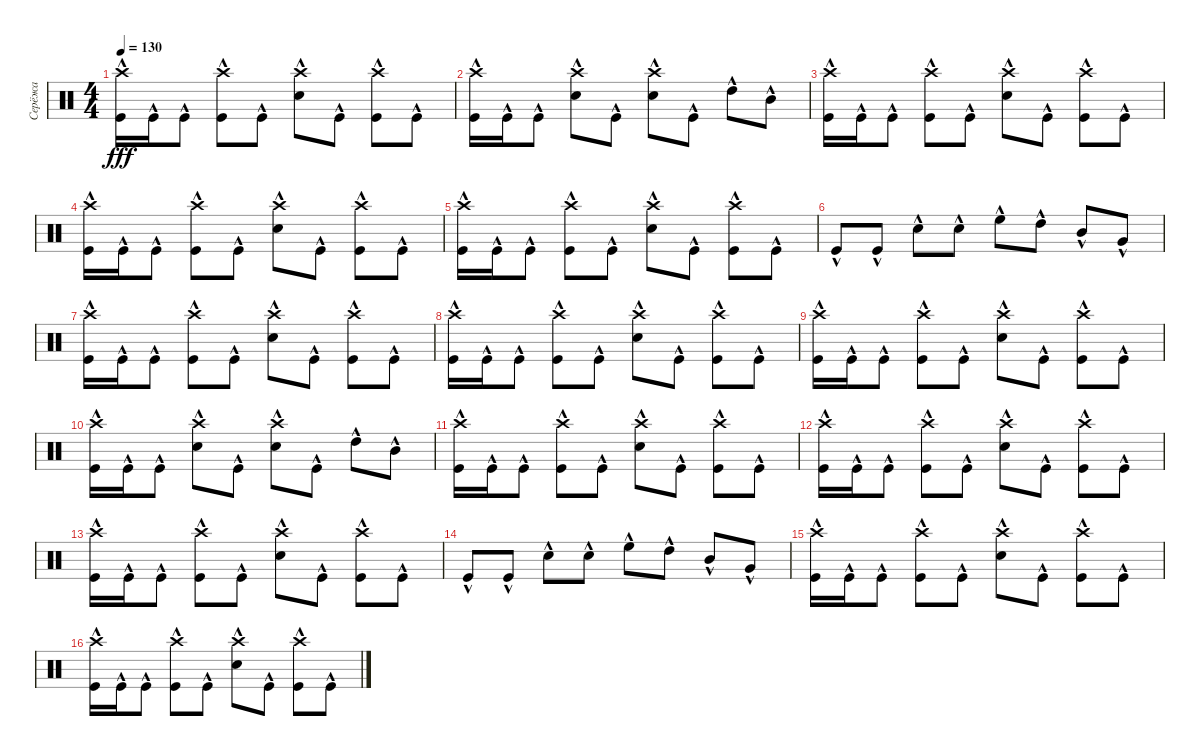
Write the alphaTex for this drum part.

\track ("Серёжа" "Серёжа") {instrument percussion}
\staff {score}
\articulation defaults
\ts (4 4)
\tempo 130
\clef neutral
\ks c
("Crash high (hit)" "Kick (hit)"{hac}).16{dy fff} "Kick (hit)"{hac}.16 "Kick (hit)"{hac}.8 ("Crash high (hit)" "Kick (hit)"{hac}).8 "Kick (hit)"{hac}.8 ("Crash high (hit)" "Snare (hit) 2"{hac}).8 "Kick (hit)"{hac}.8 ("Crash high (hit)" "Kick (hit)"{hac}).8 "Kick (hit)"{hac}.8 |
("Crash high (hit)" "Kick (hit)"{hac}).16 "Kick (hit)"{hac}.16 "Kick (hit)"{hac}.8 ("Crash high (hit)" "Snare (hit) 2"{hac}).8 "Kick (hit)"{hac}.8 ("Crash high (hit)" "Snare (hit) 2"{hac}).8 "Kick (hit)"{hac}.8 "High Tom (hit)"{hac}.8 "Mid Tom (hit)"{hac}.8 |
("Crash high (hit)"{hac} "Kick (hit)"{hac}).16 "Kick (hit)"{hac}.16 "Kick (hit)"{hac}.8 ("Crash high (hit)" "Kick (hit)"{hac}).8 "Kick (hit)"{hac}.8 ("Crash high (hit)" "Snare (hit) 2"{hac}).8 "Kick (hit)"{hac}.8 ("Crash high (hit)" "Kick (hit)"{hac}).8 "Kick (hit)"{hac}.8 |
("Crash high (hit)" "Kick (hit)"{hac}).16 "Kick (hit)"{hac}.16 "Kick (hit)"{hac}.8 ("Crash high (hit)" "Kick (hit)"{hac}).8 "Kick (hit)"{hac}.8 ("Crash high (hit)" "Snare (hit) 2"{hac}).8 "Kick (hit)"{hac}.8 ("Crash high (hit)" "Kick (hit)"{hac}).8 "Kick (hit)"{hac}.8 |
("Crash high (hit)" "Kick (hit)"{hac}).16 "Kick (hit)"{hac}.16 "Kick (hit)"{hac}.8 ("Crash high (hit)" "Kick (hit)"{hac}).8 "Kick (hit)"{hac}.8 ("Crash high (hit)" "Snare (hit) 2"{hac}).8 "Kick (hit)"{hac}.8 ("Crash high (hit)" "Kick (hit)"{hac}).8 "Kick (hit)"{hac}.8 |
"Kick (hit)"{hac}.8 "Kick (hit)"{hac}.8 "Snare (hit) 2"{hac}.8 "Snare (hit) 2"{hac}.8 "High Floor Tom (hit)"{hac}.8 "High Tom (hit)"{hac}.8 "Mid Tom (hit)"{hac}.8 "Very Low Tom (hit)"{hac}.8 |
("Crash high (hit)"{hac} "Kick (hit)"{hac}).16 "Kick (hit)"{hac}.16 "Kick (hit)"{hac}.8 ("Crash high (hit)" "Kick (hit)"{hac}).8 "Kick (hit)"{hac}.8 ("Crash high (hit)" "Snare (hit) 2"{hac}).8 "Kick (hit)"{hac}.8 ("Crash high (hit)" "Kick (hit)"{hac}).8 "Kick (hit)"{hac}.8 |
("Crash high (hit)" "Kick (hit)"{hac}).16 "Kick (hit)"{hac}.16 "Kick (hit)"{hac}.8 ("Crash high (hit)" "Kick (hit)"{hac}).8 "Kick (hit)"{hac}.8 ("Crash high (hit)" "Snare (hit) 2"{hac}).8 "Kick (hit)"{hac}.8 ("Crash high (hit)" "Kick (hit)"{hac}).8 "Kick (hit)"{hac}.8 |
("Crash high (hit)" "Kick (hit)"{hac}).16 "Kick (hit)"{hac}.16 "Kick (hit)"{hac}.8 ("Crash high (hit)" "Kick (hit)"{hac}).8 "Kick (hit)"{hac}.8 ("Crash high (hit)" "Snare (hit) 2"{hac}).8 "Kick (hit)"{hac}.8 ("Crash high (hit)" "Kick (hit)"{hac}).8 "Kick (hit)"{hac}.8 |
("Crash high (hit)" "Kick (hit)"{hac}).16 "Kick (hit)"{hac}.16 "Kick (hit)"{hac}.8 ("Crash high (hit)" "Snare (hit) 2"{hac}).8 "Kick (hit)"{hac}.8 ("Crash high (hit)" "Snare (hit) 2"{hac}).8 "Kick (hit)"{hac}.8 "High Tom (hit)"{hac}.8 "Mid Tom (hit)"{hac}.8 |
("Crash high (hit)"{hac} "Kick (hit)"{hac}).16 "Kick (hit)"{hac}.16 "Kick (hit)"{hac}.8 ("Crash high (hit)" "Kick (hit)"{hac}).8 "Kick (hit)"{hac}.8 ("Crash high (hit)" "Snare (hit) 2"{hac}).8 "Kick (hit)"{hac}.8 ("Crash high (hit)" "Kick (hit)"{hac}).8 "Kick (hit)"{hac}.8 |
("Crash high (hit)" "Kick (hit)"{hac}).16 "Kick (hit)"{hac}.16 "Kick (hit)"{hac}.8 ("Crash high (hit)" "Kick (hit)"{hac}).8 "Kick (hit)"{hac}.8 ("Crash high (hit)" "Snare (hit) 2"{hac}).8 "Kick (hit)"{hac}.8 ("Crash high (hit)" "Kick (hit)"{hac}).8 "Kick (hit)"{hac}.8 |
("Crash high (hit)" "Kick (hit)"{hac}).16 "Kick (hit)"{hac}.16 "Kick (hit)"{hac}.8 ("Crash high (hit)" "Kick (hit)"{hac}).8 "Kick (hit)"{hac}.8 ("Crash high (hit)" "Snare (hit) 2"{hac}).8 "Kick (hit)"{hac}.8 ("Crash high (hit)" "Kick (hit)"{hac}).8 "Kick (hit)"{hac}.8 |
"Kick (hit)"{hac}.8 "Kick (hit)"{hac}.8 "Snare (hit) 2"{hac}.8 "Snare (hit) 2"{hac}.8 "High Floor Tom (hit)"{hac}.8 "High Tom (hit)"{hac}.8 "Mid Tom (hit)"{hac}.8 "Very Low Tom (hit)"{hac}.8 |
("Crash high (hit)"{hac} "Kick (hit)"{hac}).16 "Kick (hit)"{hac}.16 "Kick (hit)"{hac}.8 ("Crash high (hit)" "Kick (hit)"{hac}).8 "Kick (hit)"{hac}.8 ("Crash high (hit)" "Snare (hit) 2"{hac}).8 "Kick (hit)"{hac}.8 ("Crash high (hit)" "Kick (hit)"{hac}).8 "Kick (hit)"{hac}.8 |
("Crash high (hit)" "Kick (hit)"{hac}).16 "Kick (hit)"{hac}.16 "Kick (hit)"{hac}.8 ("Crash high (hit)" "Kick (hit)"{hac}).8 "Kick (hit)"{hac}.8 ("Crash high (hit)" "Snare (hit) 2"{hac}).8 "Kick (hit)"{hac}.8 ("Crash high (hit)" "Kick (hit)"{hac}).8 "Kick (hit)"{hac}.8
